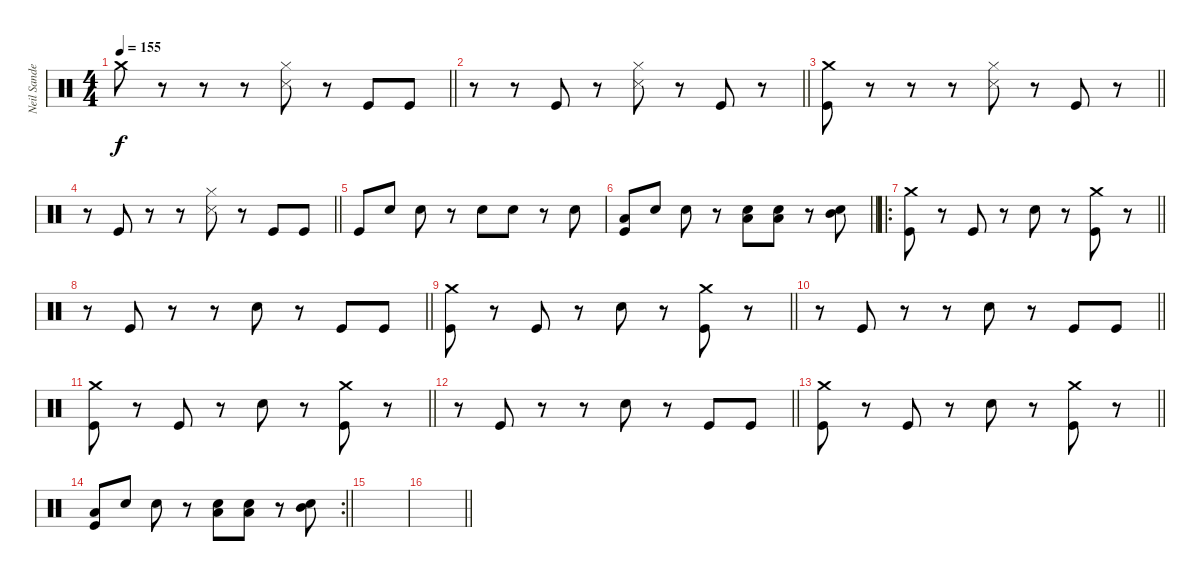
\track ("Neil Sanderson" "Neil Sande") {instrument percussion}
\staff {score}
\articulation defaults
\ts (4 4)
\tempo 155
\clef neutral
\barLineRight lightlight
\ks c "Crash medium (hit)".8{dy f}
r.8 r.8 r.8 ("Snare (side stick) 3" "Hi-Hat (closed)").8 r.8 "Kick (hit)".8 "Kick (hit)".8 |
\barLineRight lightlight
r.8 r.8 "Kick (hit)".8 r.8 ("Snare (side stick) 3" "Hi-Hat (closed)").8 r.8 "Kick (hit)".8 r.8 |
\barLineRight lightlight
("Kick (hit)" "Crash medium (hit)").8 r.8 r.8 r.8 ("Snare (side stick) 3" "Hi-Hat (closed)").8 r.8 "Kick (hit)".8 r.8 |
\barLineRight lightlight
r.8 "Kick (hit)".8 r.8 r.8 ("Snare (side stick) 3" "Hi-Hat (closed)").8 r.8 "Kick (hit)".8 "Kick (hit)".8 |
"Kick (hit)".8 "Electric Snare (hit)".8 "Electric Snare (hit)".8 r.8 "Electric Snare (hit)".8 "Electric Snare (hit)".8 r.8 "Electric Snare (hit)".8 |
\barLineRight lightlight
("Kick (hit)" "Low Tom (hit)").8 "Electric Snare (hit)".8 "Electric Snare (hit)".8 r.8 ("Low Tom (hit)" "Electric Snare (hit)").8 ("Low Tom (hit)" "Electric Snare (hit)").8 r.8 ("Mid Tom (hit)" "Electric Snare (hit)").8 |
\ro
\section ("" "")
\barLineRight lightlight
("Kick (hit)" "Crash medium (hit)").8 r.8 "Kick (hit)".8 r.8 "Electric Snare (hit)".8 r.8 ("Kick (hit)" "Crash medium (hit)").8 r.8 |
\barLineRight lightlight
r.8 "Kick (hit)".8 r.8 r.8 "Electric Snare (hit)".8 r.8 "Kick (hit)".8 "Kick (hit)".8 |
\barLineRight lightlight
("Kick (hit)" "Crash medium (hit)").8 r.8 "Kick (hit)".8 r.8 "Electric Snare (hit)".8 r.8 ("Kick (hit)" "Crash medium (hit)").8 r.8 |
\barLineRight lightlight
r.8 "Kick (hit)".8 r.8 r.8 "Electric Snare (hit)".8 r.8 "Kick (hit)".8 "Kick (hit)".8 |
\barLineRight lightlight
("Kick (hit)" "Crash medium (hit)").8 r.8 "Kick (hit)".8 r.8 "Electric Snare (hit)".8 r.8 ("Kick (hit)" "Crash medium (hit)").8 r.8 |
\barLineRight lightlight
r.8 "Kick (hit)".8 r.8 r.8 "Electric Snare (hit)".8 r.8 "Kick (hit)".8 "Kick (hit)".8 |
\barLineRight lightlight
("Kick (hit)" "Crash medium (hit)").8 r.8 "Kick (hit)".8 r.8 "Electric Snare (hit)".8 r.8 ("Kick (hit)" "Crash medium (hit)").8 r.8 |
\rc 2
\barLineRight lightlight
("Kick (hit)" "Low Tom (hit)").8 "Electric Snare (hit)".8 "Electric Snare (hit)".8 r.8 ("Low Tom (hit)" "Electric Snare (hit)").8 ("Low Tom (hit)" "Electric Snare (hit)").8 r.8 ("Mid Tom (hit)" "Electric Snare (hit)").8 |
|
\barLineRight lightlight
